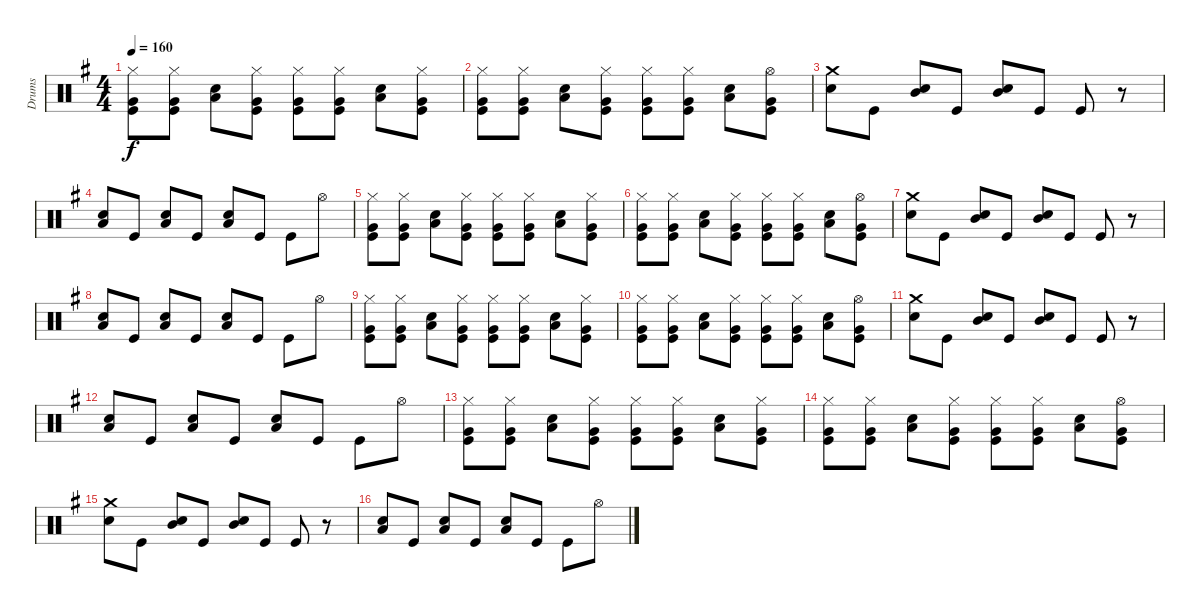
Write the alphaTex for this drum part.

\track ("Drums" "Drums") {instrument percussion}
\staff {score}
\articulation defaults
\ts (4 4)
\tempo 160
\clef neutral
\ks g
("Hi-Hat (closed)" "Very Low Tom (hit)" "Kick (hit)").8{dy f} ("Hi-Hat (closed)" "Very Low Tom (hit)" "Kick (hit)").8 ("Snare (hit) 2" "Low Tom (hit)").8 ("Hi-Hat (closed)" "Very Low Tom (hit)" "Kick (hit)").8 ("Hi-Hat (closed)" "Very Low Tom (hit)" "Kick (hit)").8 ("Hi-Hat (closed)" "Very Low Tom (hit)" "Kick (hit)").8 ("Snare (hit) 2" "Low Tom (hit)").8 ("Hi-Hat (closed)" "Very Low Tom (hit)" "Kick (hit)").8 |
("Hi-Hat (closed)" "Very Low Tom (hit)" "Kick (hit)").8 ("Hi-Hat (closed)" "Very Low Tom (hit)" "Kick (hit)").8 ("Snare (hit) 2" "Low Tom (hit)").8 ("Hi-Hat (closed)" "Very Low Tom (hit)" "Kick (hit)").8 ("Hi-Hat (closed)" "Very Low Tom (hit)" "Kick (hit)").8 ("Hi-Hat (closed)" "Very Low Tom (hit)" "Kick (hit)").8 ("Snare (hit) 2" "Low Tom (hit)").8 ("Hi-Hat (open)" "Very Low Tom (hit)" "Kick (hit)").8 |
("Crash medium (hit)" "Snare (hit) 2").8 "Kick (hit)".8 ("Snare (hit) 2" "Mid Tom (hit)").8 "Kick (hit)".8 ("Snare (hit) 2" "Mid Tom (hit)").8 "Kick (hit)".8 "Kick (hit)".8 r.8 |
("Snare (hit) 2" "Low Tom (hit)").8 "Kick (hit)".8 ("Snare (hit) 2" "Low Tom (hit)").8 "Kick (hit)".8 ("Snare (hit) 2" "Low Tom (hit)").8 "Kick (hit)".8 "Kick (hit)".8 "Hi-Hat (open)".8 |
("Hi-Hat (closed)" "Very Low Tom (hit)" "Kick (hit)").8 ("Hi-Hat (closed)" "Very Low Tom (hit)" "Kick (hit)").8 ("Snare (hit) 2" "Low Tom (hit)").8 ("Hi-Hat (closed)" "Very Low Tom (hit)" "Kick (hit)").8 ("Hi-Hat (closed)" "Very Low Tom (hit)" "Kick (hit)").8 ("Hi-Hat (closed)" "Very Low Tom (hit)" "Kick (hit)").8 ("Snare (hit) 2" "Low Tom (hit)").8 ("Hi-Hat (closed)" "Very Low Tom (hit)" "Kick (hit)").8 |
("Hi-Hat (closed)" "Very Low Tom (hit)" "Kick (hit)").8 ("Hi-Hat (closed)" "Very Low Tom (hit)" "Kick (hit)").8 ("Snare (hit) 2" "Low Tom (hit)").8 ("Hi-Hat (closed)" "Very Low Tom (hit)" "Kick (hit)").8 ("Hi-Hat (closed)" "Very Low Tom (hit)" "Kick (hit)").8 ("Hi-Hat (closed)" "Very Low Tom (hit)" "Kick (hit)").8 ("Snare (hit) 2" "Low Tom (hit)").8 ("Hi-Hat (open)" "Very Low Tom (hit)" "Kick (hit)").8 |
("Crash medium (hit)" "Snare (hit) 2").8 "Kick (hit)".8 ("Snare (hit) 2" "Mid Tom (hit)").8 "Kick (hit)".8 ("Snare (hit) 2" "Mid Tom (hit)").8 "Kick (hit)".8 "Kick (hit)".8 r.8 |
("Snare (hit) 2" "Low Tom (hit)").8 "Kick (hit)".8 ("Snare (hit) 2" "Low Tom (hit)").8 "Kick (hit)".8 ("Snare (hit) 2" "Low Tom (hit)").8 "Kick (hit)".8 "Kick (hit)".8 "Hi-Hat (open)".8 |
("Hi-Hat (closed)" "Very Low Tom (hit)" "Kick (hit)").8 ("Hi-Hat (closed)" "Very Low Tom (hit)" "Kick (hit)").8 ("Snare (hit) 2" "Low Tom (hit)").8 ("Hi-Hat (closed)" "Very Low Tom (hit)" "Kick (hit)").8 ("Hi-Hat (closed)" "Very Low Tom (hit)" "Kick (hit)").8 ("Hi-Hat (closed)" "Very Low Tom (hit)" "Kick (hit)").8 ("Snare (hit) 2" "Low Tom (hit)").8 ("Hi-Hat (closed)" "Very Low Tom (hit)" "Kick (hit)").8 |
("Hi-Hat (closed)" "Very Low Tom (hit)" "Kick (hit)").8 ("Hi-Hat (closed)" "Very Low Tom (hit)" "Kick (hit)").8 ("Snare (hit) 2" "Low Tom (hit)").8 ("Hi-Hat (closed)" "Very Low Tom (hit)" "Kick (hit)").8 ("Hi-Hat (closed)" "Very Low Tom (hit)" "Kick (hit)").8 ("Hi-Hat (closed)" "Very Low Tom (hit)" "Kick (hit)").8 ("Snare (hit) 2" "Low Tom (hit)").8 ("Hi-Hat (open)" "Very Low Tom (hit)" "Kick (hit)").8 |
("Crash medium (hit)" "Snare (hit) 2").8 "Kick (hit)".8 ("Snare (hit) 2" "Mid Tom (hit)").8 "Kick (hit)".8 ("Snare (hit) 2" "Mid Tom (hit)").8 "Kick (hit)".8 "Kick (hit)".8 r.8 |
("Snare (hit) 2" "Low Tom (hit)").8 "Kick (hit)".8 ("Snare (hit) 2" "Low Tom (hit)").8 "Kick (hit)".8 ("Snare (hit) 2" "Low Tom (hit)").8 "Kick (hit)".8 "Kick (hit)".8 "Hi-Hat (open)".8 |
("Hi-Hat (closed)" "Very Low Tom (hit)" "Kick (hit)").8 ("Hi-Hat (closed)" "Very Low Tom (hit)" "Kick (hit)").8 ("Snare (hit) 2" "Low Tom (hit)").8 ("Hi-Hat (closed)" "Very Low Tom (hit)" "Kick (hit)").8 ("Hi-Hat (closed)" "Very Low Tom (hit)" "Kick (hit)").8 ("Hi-Hat (closed)" "Very Low Tom (hit)" "Kick (hit)").8 ("Snare (hit) 2" "Low Tom (hit)").8 ("Hi-Hat (closed)" "Very Low Tom (hit)" "Kick (hit)").8 |
("Hi-Hat (closed)" "Very Low Tom (hit)" "Kick (hit)").8 ("Hi-Hat (closed)" "Very Low Tom (hit)" "Kick (hit)").8 ("Snare (hit) 2" "Low Tom (hit)").8 ("Hi-Hat (closed)" "Very Low Tom (hit)" "Kick (hit)").8 ("Hi-Hat (closed)" "Very Low Tom (hit)" "Kick (hit)").8 ("Hi-Hat (closed)" "Very Low Tom (hit)" "Kick (hit)").8 ("Snare (hit) 2" "Low Tom (hit)").8 ("Hi-Hat (open)" "Very Low Tom (hit)" "Kick (hit)").8 |
("Crash medium (hit)" "Snare (hit) 2").8 "Kick (hit)".8 ("Snare (hit) 2" "Mid Tom (hit)").8 "Kick (hit)".8 ("Snare (hit) 2" "Mid Tom (hit)").8 "Kick (hit)".8 "Kick (hit)".8 r.8 |
("Snare (hit) 2" "Low Tom (hit)").8 "Kick (hit)".8 ("Snare (hit) 2" "Low Tom (hit)").8 "Kick (hit)".8 ("Snare (hit) 2" "Low Tom (hit)").8 "Kick (hit)".8 "Kick (hit)".8 "Hi-Hat (open)".8
